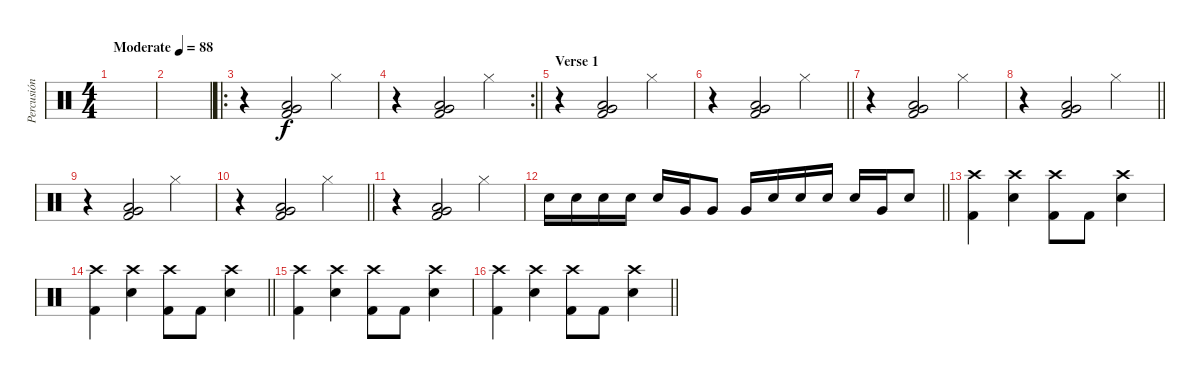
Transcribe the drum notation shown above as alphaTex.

\track ("Percusión" "Percusión") {instrument percussion}
\staff {score}
\articulation defaults
\ts (4 4)
\tempo (88 "Moderate")
\clef neutral
\ks c
|
|
\ro
r.4 ("Very Low Tom (hit)" "Low Floor Tom (hit)" "Kick (hit) 2").2 "Hi-Hat (closed)".4 |
\rc 2
\barLineRight lightlight
r.4 ("Very Low Tom (hit)" "Low Floor Tom (hit)" "Kick (hit) 2").2 "Hi-Hat (closed)".4 |
\section ("" "Verse 1")
r.4 ("Very Low Tom (hit)" "Low Floor Tom (hit)" "Kick (hit) 2").2 "Hi-Hat (closed)".4 |
\barLineRight lightlight
r.4 ("Very Low Tom (hit)" "Low Floor Tom (hit)" "Kick (hit) 2").2 "Hi-Hat (closed)".4 |
r.4 ("Very Low Tom (hit)" "Low Floor Tom (hit)" "Kick (hit) 2").2 "Hi-Hat (closed)".4 |
\barLineRight lightlight
r.4 ("Very Low Tom (hit)" "Low Floor Tom (hit)" "Kick (hit) 2").2 "Hi-Hat (closed)".4 |
r.4 ("Very Low Tom (hit)" "Low Floor Tom (hit)" "Kick (hit) 2").2 "Hi-Hat (closed)".4 |
\barLineRight lightlight
r.4 ("Very Low Tom (hit)" "Low Floor Tom (hit)" "Kick (hit) 2").2 "Hi-Hat (closed)".4 |
r.4 ("Very Low Tom (hit)" "Low Floor Tom (hit)" "Kick (hit) 2").2 "Hi-Hat (closed)".4 |
\barLineRight lightlight "Electric Snare (hit)".16{dy f} "Electric Snare (hit)".16 "Electric Snare (hit)".16 "Electric Snare (hit)".16 "Electric Snare (hit)".16 "Very Low Tom (hit)".16 "Very Low Tom (hit)".8 "Very Low Tom (hit)".16 "Electric Snare (hit)".16 "Electric Snare (hit)".16 "Electric Snare (hit)".16 "Electric Snare (hit)".16 "Very Low Tom (hit)".16 "Electric Snare (hit)".8
|
("Crash high (hit)" "Kick (hit) 2").4 ("Crash high (hit)" "Electric Snare (hit)").4 ("Crash high (hit)" "Kick (hit) 2").8 "Kick (hit) 2".8 ("Crash high (hit)" "Electric Snare (hit)").4 |
\barLineRight lightlight
("Crash high (hit)" "Kick (hit) 2").4 ("Crash high (hit)" "Electric Snare (hit)").4 ("Crash high (hit)" "Kick (hit) 2").8 "Kick (hit) 2".8 ("Crash high (hit)" "Electric Snare (hit)").4 |
("Crash high (hit)" "Kick (hit) 2").4 ("Crash high (hit)" "Electric Snare (hit)").4 ("Crash high (hit)" "Kick (hit) 2").8 "Kick (hit) 2".8 ("Crash high (hit)" "Electric Snare (hit)").4 |
\barLineRight lightlight
("Crash high (hit)" "Kick (hit) 2").4 ("Crash high (hit)" "Electric Snare (hit)").4 ("Crash high (hit)" "Kick (hit) 2").8 "Kick (hit) 2".8 ("Crash high (hit)" "Electric Snare (hit)").4
